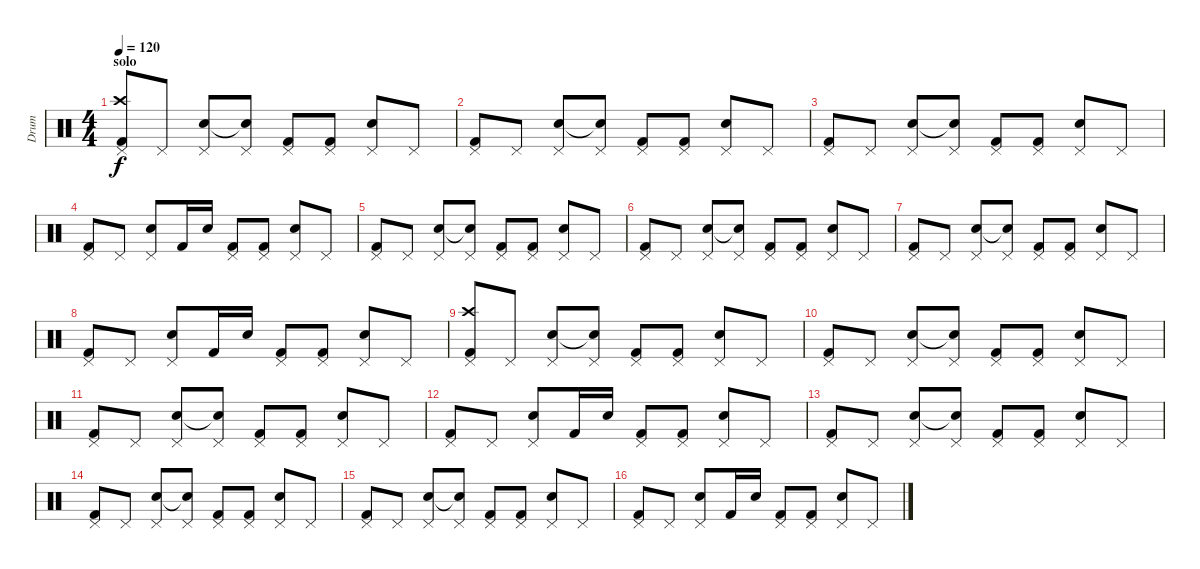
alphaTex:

\track ("Drum" "Drum") {instrument percussion}
\staff {score}
\articulation defaults
\ts (4 4)
\section ("" "solo")
\tempo 120
\clef neutral
\ks c
("Pedal Hi-Hat (hit)" "Crash high (hit)" "Kick (hit) 2").8{dy f} "Pedal Hi-Hat (hit)".8 ("Pedal Hi-Hat (hit)" "Snare (hit) 2").8 ("Pedal Hi-Hat (hit)" "Snare (hit)"{t}).8 ("Pedal Hi-Hat (hit)" "Kick (hit) 2").8 ("Pedal Hi-Hat (hit)" "Kick (hit) 2").8 ("Pedal Hi-Hat (hit)" "Snare (hit) 2").8 "Pedal Hi-Hat (hit)".8 |
("Pedal Hi-Hat (hit)" "Kick (hit) 2").8 "Pedal Hi-Hat (hit)".8 ("Pedal Hi-Hat (hit)" "Snare (hit) 2").8 ("Pedal Hi-Hat (hit)" "Snare (hit)"{t}).8 ("Pedal Hi-Hat (hit)" "Kick (hit) 2").8 ("Pedal Hi-Hat (hit)" "Kick (hit) 2").8 ("Pedal Hi-Hat (hit)" "Snare (hit) 2").8 "Pedal Hi-Hat (hit)".8 |
("Pedal Hi-Hat (hit)" "Kick (hit) 2").8 "Pedal Hi-Hat (hit)".8 ("Pedal Hi-Hat (hit)" "Snare (hit) 2").8 ("Pedal Hi-Hat (hit)" "Snare (hit)"{t}).8 ("Pedal Hi-Hat (hit)" "Kick (hit) 2").8 ("Pedal Hi-Hat (hit)" "Kick (hit) 2").8 ("Pedal Hi-Hat (hit)" "Snare (hit) 2").8 "Pedal Hi-Hat (hit)".8 |
("Pedal Hi-Hat (hit)" "Kick (hit) 2").8 "Pedal Hi-Hat (hit)".8 ("Pedal Hi-Hat (hit)" "Snare (hit) 2").8 "Kick (hit) 2".16 "Snare (hit) 2".16 ("Pedal Hi-Hat (hit)" "Kick (hit) 2").8 ("Pedal Hi-Hat (hit)" "Kick (hit) 2").8 ("Pedal Hi-Hat (hit)" "Snare (hit) 2").8 "Pedal Hi-Hat (hit)".8 |
("Pedal Hi-Hat (hit)" "Kick (hit) 2").8 "Pedal Hi-Hat (hit)".8 ("Pedal Hi-Hat (hit)" "Snare (hit) 2").8 ("Pedal Hi-Hat (hit)" "Snare (hit)"{t}).8 ("Pedal Hi-Hat (hit)" "Kick (hit) 2").8 ("Pedal Hi-Hat (hit)" "Kick (hit) 2").8 ("Pedal Hi-Hat (hit)" "Snare (hit) 2").8 "Pedal Hi-Hat (hit)".8 |
("Pedal Hi-Hat (hit)" "Kick (hit) 2").8 "Pedal Hi-Hat (hit)".8 ("Pedal Hi-Hat (hit)" "Snare (hit) 2").8 ("Pedal Hi-Hat (hit)" "Snare (hit)"{t}).8 ("Pedal Hi-Hat (hit)" "Kick (hit) 2").8 ("Pedal Hi-Hat (hit)" "Kick (hit) 2").8 ("Pedal Hi-Hat (hit)" "Snare (hit) 2").8 "Pedal Hi-Hat (hit)".8 |
("Pedal Hi-Hat (hit)" "Kick (hit) 2").8 "Pedal Hi-Hat (hit)".8 ("Pedal Hi-Hat (hit)" "Snare (hit) 2").8 ("Pedal Hi-Hat (hit)" "Snare (hit)"{t}).8 ("Pedal Hi-Hat (hit)" "Kick (hit) 2").8 ("Pedal Hi-Hat (hit)" "Kick (hit) 2").8 ("Pedal Hi-Hat (hit)" "Snare (hit) 2").8 "Pedal Hi-Hat (hit)".8 |
("Pedal Hi-Hat (hit)" "Kick (hit) 2").8 "Pedal Hi-Hat (hit)".8 ("Pedal Hi-Hat (hit)" "Snare (hit) 2").8 "Kick (hit) 2".16 "Snare (hit) 2".16 ("Pedal Hi-Hat (hit)" "Kick (hit) 2").8 ("Pedal Hi-Hat (hit)" "Kick (hit) 2").8 ("Pedal Hi-Hat (hit)" "Snare (hit) 2").8 "Pedal Hi-Hat (hit)".8 |
("Pedal Hi-Hat (hit)" "Crash high (hit)" "Kick (hit) 2").8 "Pedal Hi-Hat (hit)".8 ("Pedal Hi-Hat (hit)" "Snare (hit) 2").8 ("Pedal Hi-Hat (hit)" "Snare (hit)"{t}).8 ("Pedal Hi-Hat (hit)" "Kick (hit) 2").8 ("Pedal Hi-Hat (hit)" "Kick (hit) 2").8 ("Pedal Hi-Hat (hit)" "Snare (hit) 2").8 "Pedal Hi-Hat (hit)".8 |
("Pedal Hi-Hat (hit)" "Kick (hit) 2").8 "Pedal Hi-Hat (hit)".8 ("Pedal Hi-Hat (hit)" "Snare (hit) 2").8 ("Pedal Hi-Hat (hit)" "Snare (hit)"{t}).8 ("Pedal Hi-Hat (hit)" "Kick (hit) 2").8 ("Pedal Hi-Hat (hit)" "Kick (hit) 2").8 ("Pedal Hi-Hat (hit)" "Snare (hit) 2").8 "Pedal Hi-Hat (hit)".8 |
("Pedal Hi-Hat (hit)" "Kick (hit) 2").8 "Pedal Hi-Hat (hit)".8 ("Pedal Hi-Hat (hit)" "Snare (hit) 2").8 ("Pedal Hi-Hat (hit)" "Snare (hit)"{t}).8 ("Pedal Hi-Hat (hit)" "Kick (hit) 2").8 ("Pedal Hi-Hat (hit)" "Kick (hit) 2").8 ("Pedal Hi-Hat (hit)" "Snare (hit) 2").8 "Pedal Hi-Hat (hit)".8 |
("Pedal Hi-Hat (hit)" "Kick (hit) 2").8 "Pedal Hi-Hat (hit)".8 ("Pedal Hi-Hat (hit)" "Snare (hit) 2").8 "Kick (hit) 2".16 "Snare (hit) 2".16 ("Pedal Hi-Hat (hit)" "Kick (hit) 2").8 ("Pedal Hi-Hat (hit)" "Kick (hit) 2").8 ("Pedal Hi-Hat (hit)" "Snare (hit) 2").8 "Pedal Hi-Hat (hit)".8 |
("Pedal Hi-Hat (hit)" "Kick (hit) 2").8 "Pedal Hi-Hat (hit)".8 ("Pedal Hi-Hat (hit)" "Snare (hit) 2").8 ("Pedal Hi-Hat (hit)" "Snare (hit)"{t}).8 ("Pedal Hi-Hat (hit)" "Kick (hit) 2").8 ("Pedal Hi-Hat (hit)" "Kick (hit) 2").8 ("Pedal Hi-Hat (hit)" "Snare (hit) 2").8 "Pedal Hi-Hat (hit)".8 |
("Pedal Hi-Hat (hit)" "Kick (hit) 2").8 "Pedal Hi-Hat (hit)".8 ("Pedal Hi-Hat (hit)" "Snare (hit) 2").8 ("Pedal Hi-Hat (hit)" "Snare (hit)"{t}).8 ("Pedal Hi-Hat (hit)" "Kick (hit) 2").8 ("Pedal Hi-Hat (hit)" "Kick (hit) 2").8 ("Pedal Hi-Hat (hit)" "Snare (hit) 2").8 "Pedal Hi-Hat (hit)".8 |
("Pedal Hi-Hat (hit)" "Kick (hit) 2").8 "Pedal Hi-Hat (hit)".8 ("Pedal Hi-Hat (hit)" "Snare (hit) 2").8 ("Pedal Hi-Hat (hit)" "Snare (hit)"{t}).8 ("Pedal Hi-Hat (hit)" "Kick (hit) 2").8 ("Pedal Hi-Hat (hit)" "Kick (hit) 2").8 ("Pedal Hi-Hat (hit)" "Snare (hit) 2").8 "Pedal Hi-Hat (hit)".8 |
("Pedal Hi-Hat (hit)" "Kick (hit) 2").8 "Pedal Hi-Hat (hit)".8 ("Pedal Hi-Hat (hit)" "Snare (hit) 2").8 "Kick (hit) 2".16 "Snare (hit) 2".16 ("Pedal Hi-Hat (hit)" "Kick (hit) 2").8 ("Pedal Hi-Hat (hit)" "Kick (hit) 2").8 ("Pedal Hi-Hat (hit)" "Snare (hit) 2").8 "Pedal Hi-Hat (hit)".8
